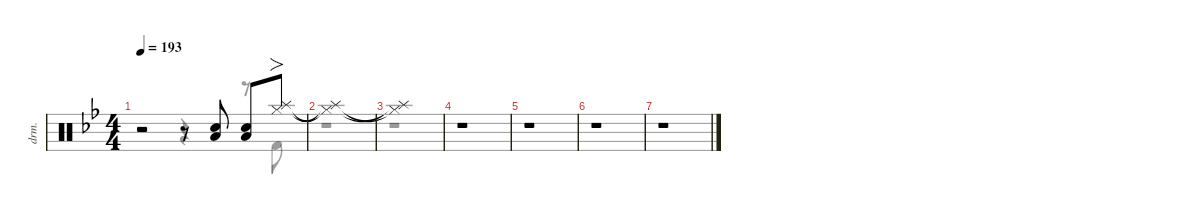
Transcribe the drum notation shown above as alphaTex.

\defaultSystemsLayout 4
\hideDynamics
\bracketExtendMode nobrackets
\otherSystemsTrackNameOrientation horizontal
\track ("伊地知虹夏" "drm.") {instrument percussion}
\staff {score}
\articulation defaults
\voice
\ts (4 4)
\tempo 193
\clef neutral
\ks bb
r.2{dy mf beam Up} r.8{beam Up} ("Snare (hit) 2"{acc forcenatural} "Low Tom (hit)"{acc forcenatural}).8{beam Up} ("Low Tom (hit)"{acc forcenatural} "Snare (hit) 2"{acc forcenatural}).8{beam Up} ("Hi-Hat (closed)"{acc forcenatural} "Splash (hit)"{acc forcenatural}).8{fo beam Up} |
("Splash (hit)"{t acc forcenatural} "Hi-Hat (closed)"{t acc forcenatural}).1{beam Up} |
("Hi-Hat (closed)"{t acc forcenatural} "Splash (hit)"{t acc forcenatural}).1{beam Up} |
r.1{beam Up} |
r.1{beam Up} |
r.1{beam Up} |
r.1{beam Up}
\voice
\clef neutral
\ottava regular
\simile none
\ks bb
r.2{dy mf beam Down} r.4{beam Down} r.8{beam Down} "Kick (hit) 2"{acc forcenatural}.8{beam Down} |
r.1{beam Down} |
r.1{beam Down} |
r.1{beam Down} |
r.1{beam Down} |
r.1{beam Down} |
r.1{beam Down}
